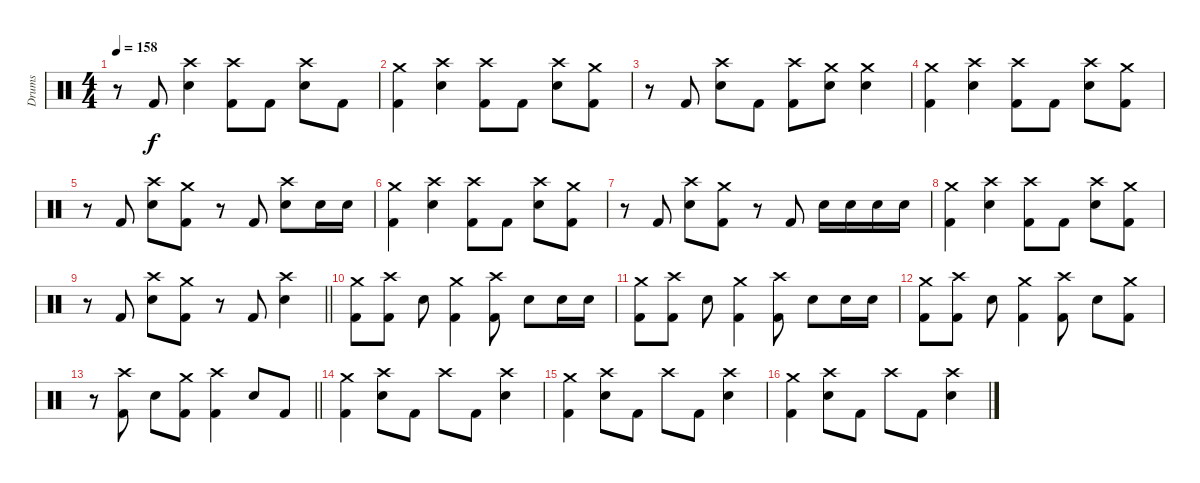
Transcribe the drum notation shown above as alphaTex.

\track ("Drums" "Drums") {instrument percussion}
\staff {score}
\articulation defaults
\ts (4 4)
\tempo 158
\clef neutral
\ks c
r.8{dy f} "Kick (hit) 2".8 ("Crash high (hit)" "Electric Snare (hit)").4 ("Crash high (hit)" "Kick (hit) 2").8 "Kick (hit) 2".8 ("Crash high (hit)" "Electric Snare (hit)").8 "Kick (hit) 2".8 |
("Crash medium (hit)" "Kick (hit) 2").4 ("Crash high (hit)" "Electric Snare (hit)").4 ("Crash high (hit)" "Kick (hit) 2").8 "Kick (hit) 2".8 ("Crash high (hit)" "Electric Snare (hit)").8 ("Crash medium (hit)" "Kick (hit) 2").8 |
r.8 "Kick (hit) 2".8 ("Crash high (hit)" "Electric Snare (hit)").8 "Kick (hit) 2".8 ("Crash high (hit)" "Kick (hit) 2").8 ("Crash medium (hit)" "Electric Snare (hit)").8 ("Crash medium (hit)" "Electric Snare (hit)").4 |
("Crash medium (hit)" "Kick (hit) 2").4 ("Crash high (hit)" "Electric Snare (hit)").4 ("Crash high (hit)" "Kick (hit) 2").8 "Kick (hit) 2".8 ("Crash high (hit)" "Electric Snare (hit)").8 ("Crash medium (hit)" "Kick (hit) 2").8 |
r.8 "Kick (hit) 2".8 ("Crash high (hit)" "Electric Snare (hit)").8 ("Crash medium (hit)" "Kick (hit) 2").8 r.8 "Kick (hit) 2".8 ("Crash high (hit)" "Electric Snare (hit)").8 "Electric Snare (hit)".16 "Electric Snare (hit)".16 |
("Crash medium (hit)" "Kick (hit) 2").4 ("Crash high (hit)" "Electric Snare (hit)").4 ("Crash high (hit)" "Kick (hit) 2").8 "Kick (hit) 2".8 ("Crash high (hit)" "Electric Snare (hit)").8 ("Crash medium (hit)" "Kick (hit) 2").8 |
r.8 "Kick (hit) 2".8 ("Crash high (hit)" "Electric Snare (hit)").8 ("Crash medium (hit)" "Kick (hit) 2").8 r.8 "Kick (hit) 2".8 "Electric Snare (hit)".16 "Electric Snare (hit)".16 "Electric Snare (hit)".16 "Electric Snare (hit)".16 |
("Crash medium (hit)" "Kick (hit) 2").4 ("Crash high (hit)" "Electric Snare (hit)").4 ("Crash high (hit)" "Kick (hit) 2").8 "Kick (hit) 2".8 ("Crash high (hit)" "Electric Snare (hit)").8 ("Crash medium (hit)" "Kick (hit) 2").8 |
\barLineRight lightlight
r.8 "Kick (hit) 2".8 ("Crash high (hit)" "Electric Snare (hit)").8 ("Crash medium (hit)" "Kick (hit) 2").8 r.8 "Kick (hit) 2".8 ("Crash high (hit)" "Electric Snare (hit)").4 |
("Crash medium (hit)" "Kick (hit) 2").8 ("Crash high (hit)" "Kick (hit) 2").8 "Electric Snare (hit)".8 ("Crash medium (hit)" "Kick (hit) 2").4 ("Crash high (hit)" "Kick (hit) 2").8 "Electric Snare (hit)".8 "Electric Snare (hit)".16 "Electric Snare (hit)".16 |
("Crash medium (hit)" "Kick (hit) 2").8 ("Crash high (hit)" "Kick (hit) 2").8 "Electric Snare (hit)".8 ("Crash medium (hit)" "Kick (hit) 2").4 ("Crash high (hit)" "Kick (hit) 2").8 "Electric Snare (hit)".8 "Electric Snare (hit)".16 "Electric Snare (hit)".16 |
("Crash medium (hit)" "Kick (hit) 2").8 ("Crash high (hit)" "Kick (hit) 2").8 "Electric Snare (hit)".8 ("Crash medium (hit)" "Kick (hit) 2").4 ("Crash high (hit)" "Kick (hit) 2").8 "Electric Snare (hit)".8 ("Crash medium (hit)" "Kick (hit) 2").8 |
\barLineRight lightlight
r.8 ("Crash high (hit)" "Kick (hit) 2").8 "Electric Snare (hit)".8 ("Crash medium (hit)" "Kick (hit) 2").8 ("Crash high (hit)" "Kick (hit) 2").4 "Electric Snare (hit)".8 "Kick (hit) 2".8 |
("Crash medium (hit)" "Kick (hit) 2").4 ("Crash high (hit)" "Electric Snare (hit)").8 "Kick (hit) 2".8 "Crash high (hit)".8 "Kick (hit) 2".8 ("Crash high (hit)" "Electric Snare (hit)").4 |
("Crash medium (hit)" "Kick (hit) 2").4 ("Crash high (hit)" "Electric Snare (hit)").8 "Kick (hit) 2".8 "Crash high (hit)".8 "Kick (hit) 2".8 ("Crash high (hit)" "Electric Snare (hit)").4 |
("Crash medium (hit)" "Kick (hit) 2").4 ("Crash high (hit)" "Electric Snare (hit)").8 "Kick (hit) 2".8 "Crash high (hit)".8 "Kick (hit) 2".8 ("Crash high (hit)" "Electric Snare (hit)").4
